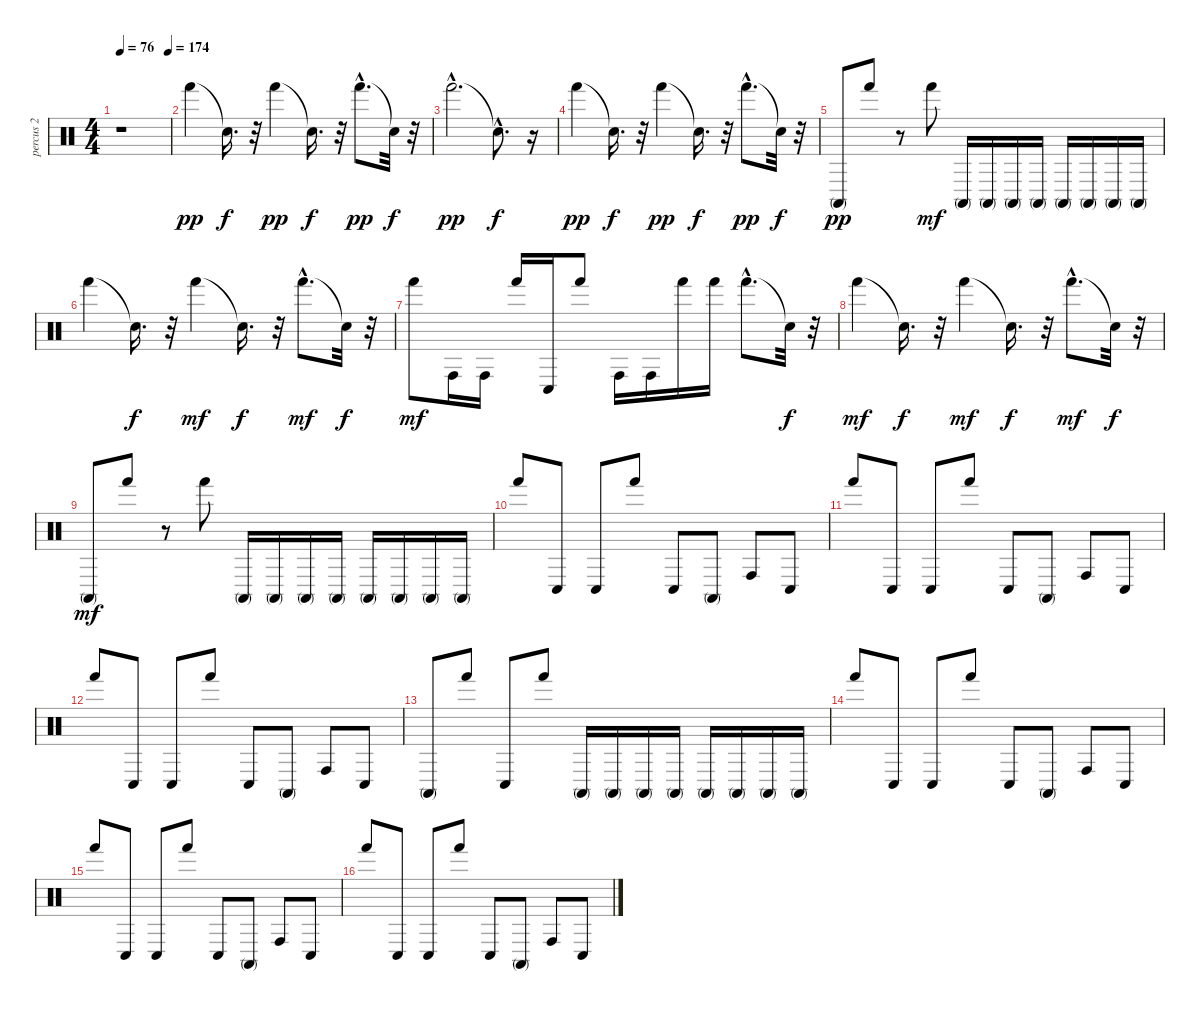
\track ("percus 2" "percus 2") {instrument percussion}
\staff {score}
\articulation defaults
\ts (4 4)
\tempo 76
\tempo (174 0.96875)
\clef neutral
\ks c
r.1{dy pp} |
"Hand (hit)".4 "Snare (hit)"{t}.16{d dy f} r.32 "Hand (hit)".4{dy pp} "Snare (hit)"{t}.16{d dy f} r.32 "Hand (hit)"{hac}.8{d dy pp} "Snare (hit)"{t}.32{dy f} r.32 |
"Hand (hit)"{hac}.2{d dy pp} "Snare (hit)"{hac t}.8{d dy f} r.16 |
"Hand (hit)".4{dy pp} "Snare (hit)"{t}.16{d dy f} r.32 "Hand (hit)".4{dy pp} "Snare (hit)"{t}.16{d dy f} r.32 "Hand (hit)"{hac}.8{d dy pp} "Snare (hit)"{t}.32{dy f} r.32 |
"Conga high (mute)".8{dy pp} "Hand (hit)".8 r.8 "Hand (hit)".8{dy mf} "Conga high (mute)".16 "Conga high (mute)".16 "Conga high (mute)".16 "Conga high (mute)".16 "Conga high (mute)".16 "Conga high (mute)".16 "Conga high (mute)".16 "Conga high (mute)".16 |
"Hand (hit)".4 "Snare (hit)"{t}.16{d dy f} r.32 "Hand (hit)".4{dy mf} "Snare (hit)"{t}.16{d dy f} r.32 "Hand (hit)"{hac}.8{d dy mf} "Snare (hit)"{t}.32{dy f} r.32 |
"Hand (hit)".8{dy mf} "Conga high (hit)".16 "Conga high (hit)".16 "Hand (hit)".16 "Conga low (hit)".16 "Hand (hit)".8 "Conga high (hit)".16 "Conga high (hit)".16 "Hand (hit)".16 "Hand (hit)".16 "Hand (hit)"{hac}.8{d} "Snare (hit)"{t}.32{dy f} r.32 |
"Hand (hit)".4{dy mf} "Snare (hit)"{t}.16{d dy f} r.32 "Hand (hit)".4{dy mf} "Snare (hit)"{t}.16{d dy f} r.32 "Hand (hit)"{hac}.8{d dy mf} "Snare (hit)"{t}.32{dy f} r.32 |
"Conga high (mute)".8{dy mf} "Hand (hit)".8 r.8 "Hand (hit)".8 "Conga high (mute)".16 "Conga high (mute)".16 "Conga high (mute)".16 "Conga high (mute)".16 "Conga high (mute)".16 "Conga high (mute)".16 "Conga high (mute)".16 "Conga high (mute)".16 |
"Hand (hit)".8 "Conga low (hit)".8 "Conga low (hit)".8 "Hand (hit)".8 "Conga low (hit)".8 "Conga high (mute)".8 "Conga high (hit)".8 "Conga low (hit)".8 |
"Hand (hit)".8 "Conga low (hit)".8 "Conga low (hit)".8 "Hand (hit)".8 "Conga low (hit)".8 "Conga high (mute)".8 "Conga high (hit)".8 "Conga low (hit)".8 |
"Hand (hit)".8 "Conga low (hit)".8 "Conga low (hit)".8 "Hand (hit)".8 "Conga low (hit)".8 "Conga high (mute)".8 "Conga high (hit)".8 "Conga low (hit)".8 |
"Conga high (mute)".8 "Hand (hit)".8 "Conga low (hit)".8 "Hand (hit)".8 "Conga high (mute)".16 "Conga high (mute)".16 "Conga high (mute)".16 "Conga high (mute)".16 "Conga high (mute)".16 "Conga high (mute)".16 "Conga high (mute)".16 "Conga high (mute)".16 |
"Hand (hit)".8 "Conga low (hit)".8 "Conga low (hit)".8 "Hand (hit)".8 "Conga low (hit)".8 "Conga high (mute)".8 "Conga high (hit)".8 "Conga low (hit)".8 |
"Hand (hit)".8 "Conga low (hit)".8 "Conga low (hit)".8 "Hand (hit)".8 "Conga low (hit)".8 "Conga high (mute)".8 "Conga high (hit)".8 "Conga low (hit)".8 |
"Hand (hit)".8 "Conga low (hit)".8 "Conga low (hit)".8 "Hand (hit)".8 "Conga low (hit)".8 "Conga high (mute)".8 "Conga high (hit)".8 "Conga low (hit)".8
